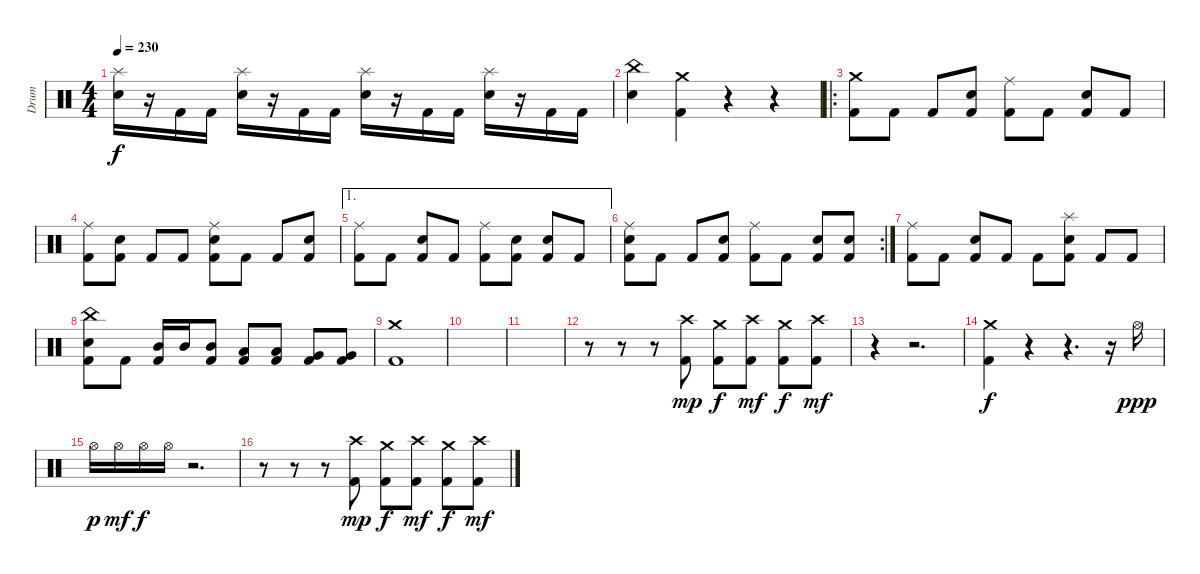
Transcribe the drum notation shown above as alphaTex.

\track ("Drum" "Drum") {instrument percussion}
\staff {score}
\articulation defaults
\ts (4 4)
\tempo 230
\clef neutral
\ks c
("Splash (hit)" "Electric Snare (hit)").16{dy f} r.16 "Kick (hit) 2".16 "Kick (hit) 2".16 ("Splash (hit)" "Electric Snare (hit)").16 r.16 "Kick (hit) 2".16 "Kick (hit) 2".16 ("Splash (hit)" "Electric Snare (hit)").16 r.16 "Kick (hit) 2".16 "Kick (hit) 2".16 ("Splash (hit)" "Electric Snare (hit)").16 r.16 "Kick (hit) 2".16 "Kick (hit) 2".16 |
("China (hit)" "Electric Snare (hit)").4 ("Crash medium (hit)" "Kick (hit) 2").4 r.4{volume 0} r.4 |
\ro
("Crash medium (hit)" "Kick (hit) 2").8{volume 13} "Kick (hit) 2".8 "Kick (hit) 2".8 ("Electric Snare (hit)" "Kick (hit) 2").8 ("Ride (middle)" "Kick (hit) 2").8 "Kick (hit) 2".8 ("Electric Snare (hit)" "Kick (hit) 2").8 "Kick (hit) 2".8 |
("Ride (middle)" "Kick (hit) 2").8 ("Electric Snare (hit)" "Kick (hit) 2").8 "Kick (hit) 2".8 "Kick (hit) 2".8 ("Ride (middle)" "Electric Snare (hit)" "Kick (hit) 2").8 "Kick (hit) 2".8 "Kick (hit) 2".8 ("Electric Snare (hit)" "Kick (hit) 2").8 |
\ae 1
("Ride (middle)" "Kick (hit) 2").8 "Kick (hit) 2".8 ("Electric Snare (hit)" "Kick (hit) 2").8 "Kick (hit) 2".8 ("Ride (middle)" "Kick (hit) 2").8 ("Electric Snare (hit)" "Kick (hit) 2").8 ("Electric Snare (hit)" "Kick (hit) 2").8 "Kick (hit) 2".8 |
\rc 2
("Ride (middle)" "Electric Snare (hit)" "Kick (hit) 2").8 "Kick (hit) 2".8 "Kick (hit) 2".8 ("Electric Snare (hit)" "Kick (hit) 2").8 ("Ride (middle)" "Kick (hit) 2").8 "Kick (hit) 2".8 ("Electric Snare (hit)" "Kick (hit) 2").8 ("Electric Snare (hit)" "Kick (hit) 2").8 |
("Ride (middle)" "Kick (hit) 2").8 "Kick (hit) 2".8 ("Electric Snare (hit)" "Kick (hit) 2").8 "Kick (hit) 2".8 "Kick (hit) 2".8 ("Splash (hit)" "Electric Snare (hit)" "Kick (hit) 2").8 "Kick (hit) 2".8 "Kick (hit) 2".8 |
("China (hit)" "Electric Snare (hit)" "Kick (hit) 2").8 "Kick (hit) 2".8 ("Mid Tom (hit)" "Kick (hit) 2").16 "Mid Tom (hit)".16 ("Mid Tom (hit)" "Kick (hit) 2").8 ("Low Tom (hit)" "Kick (hit) 2").8 ("Low Tom (hit)" "Kick (hit) 2").8 ("Very Low Tom (hit)" "Kick (hit) 2").8 ("Very Low Tom (hit)" "Kick (hit) 2").8 |
("Crash medium (hit)" "Kick (hit) 2").1 |
|
|
r.8 r.8 r.8 ("Crash high (hit)" "Kick (hit) 2").8{dy mp} ("Crash medium (hit)" "Kick (hit) 2").8{dy f} ("Crash high (hit)" "Kick (hit) 2").8{dy mf} ("Crash medium (hit)" "Kick (hit) 2").8{dy f} ("Crash high (hit)" "Kick (hit) 2").8{dy mf} |
r.4{volume 0} r.2{d} |
("Crash medium (hit)" "Kick (hit) 2").4{dy f volume 13} r.4{volume 0} r.4{d} r.16 "Hi-Hat (open)".16{dy ppp volume 13} |
"Hi-Hat (open)".16{dy p} "Hi-Hat (open)".16{dy mf} "Hi-Hat (open)".16{dy f} "Hi-Hat (open)".16 r.2{d} |
r.8 r.8 r.8 ("Crash high (hit)" "Kick (hit) 2").8{dy mp} ("Crash medium (hit)" "Kick (hit) 2").8{dy f} ("Crash high (hit)" "Kick (hit) 2").8{dy mf} ("Crash medium (hit)" "Kick (hit) 2").8{dy f} ("Crash high (hit)" "Kick (hit) 2").8{dy mf}
